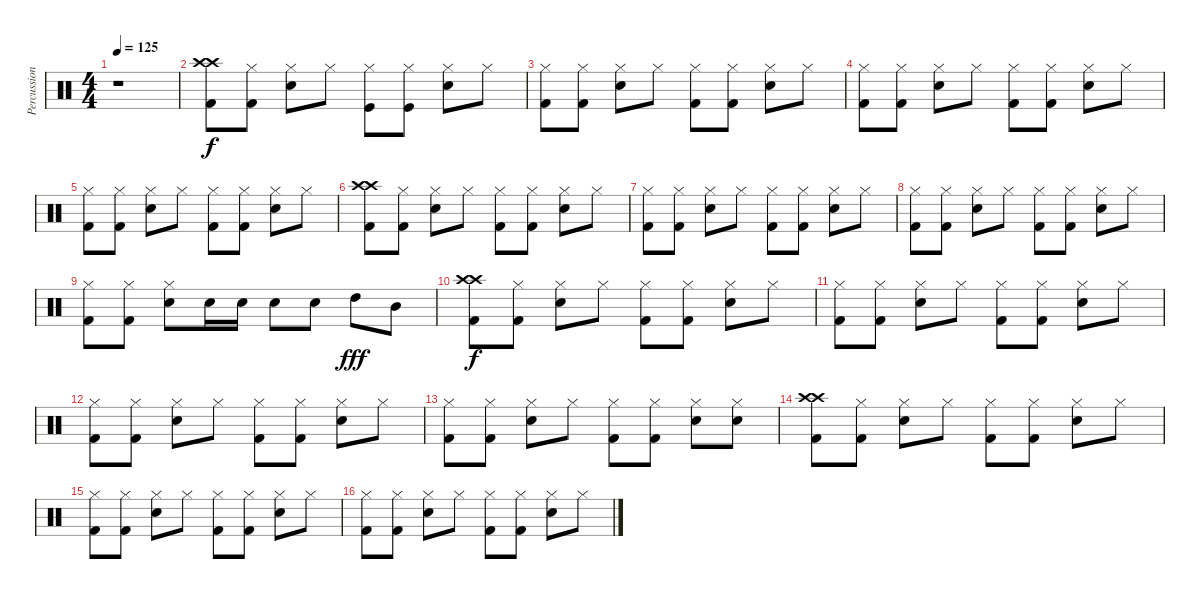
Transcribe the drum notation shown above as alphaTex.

\track ("Percussion" "Percussion") {instrument percussion}
\staff {score}
\articulation defaults
\ts (4 4)
\tempo 125
\clef neutral
\ks c
r.1{dy f} |
("Crash high (hit)" "Crash high (hit)" "Kick (hit) 2").8 ("Hi-Hat (closed)" "Kick (hit) 2").8 ("Hi-Hat (closed)" "Electric Snare (hit)").8 "Hi-Hat (closed)".8 ("Hi-Hat (closed)" "Kick (hit)").8 ("Hi-Hat (closed)" "Kick (hit)").8 ("Hi-Hat (closed)" "Electric Snare (hit)").8 "Hi-Hat (closed)".8 |
("Hi-Hat (closed)" "Kick (hit) 2").8 ("Hi-Hat (closed)" "Kick (hit) 2").8 ("Hi-Hat (closed)" "Electric Snare (hit)").8 "Hi-Hat (closed)".8 ("Hi-Hat (closed)" "Kick (hit) 2").8 ("Hi-Hat (closed)" "Kick (hit) 2").8 ("Hi-Hat (closed)" "Electric Snare (hit)").8 "Hi-Hat (closed)".8 |
("Hi-Hat (closed)" "Kick (hit) 2").8 ("Hi-Hat (closed)" "Kick (hit) 2").8 ("Hi-Hat (closed)" "Electric Snare (hit)").8 "Hi-Hat (closed)".8 ("Hi-Hat (closed)" "Kick (hit) 2").8 ("Hi-Hat (closed)" "Kick (hit) 2").8 ("Hi-Hat (closed)" "Electric Snare (hit)").8 "Hi-Hat (closed)".8 |
("Hi-Hat (closed)" "Kick (hit) 2").8 ("Hi-Hat (closed)" "Kick (hit) 2").8 ("Hi-Hat (closed)" "Electric Snare (hit)").8 "Hi-Hat (closed)".8 ("Hi-Hat (closed)" "Kick (hit) 2").8 ("Hi-Hat (closed)" "Kick (hit) 2").8 ("Hi-Hat (closed)" "Electric Snare (hit)").8 "Hi-Hat (closed)".8 |
("Crash high (hit)" "Kick (hit) 2" "Crash high (hit)").8 ("Hi-Hat (closed)" "Kick (hit) 2").8 ("Hi-Hat (closed)" "Electric Snare (hit)").8 "Hi-Hat (closed)".8 ("Hi-Hat (closed)" "Kick (hit) 2").8 ("Hi-Hat (closed)" "Kick (hit) 2").8 ("Hi-Hat (closed)" "Electric Snare (hit)").8 "Hi-Hat (closed)".8 |
("Hi-Hat (closed)" "Kick (hit) 2").8 ("Hi-Hat (closed)" "Kick (hit) 2").8 ("Hi-Hat (closed)" "Electric Snare (hit)").8 "Hi-Hat (closed)".8 ("Hi-Hat (closed)" "Kick (hit) 2").8 ("Hi-Hat (closed)" "Kick (hit) 2").8 ("Hi-Hat (closed)" "Electric Snare (hit)").8 "Hi-Hat (closed)".8 |
("Hi-Hat (closed)" "Kick (hit) 2").8 ("Hi-Hat (closed)" "Kick (hit) 2").8 ("Hi-Hat (closed)" "Electric Snare (hit)").8 "Hi-Hat (closed)".8 ("Hi-Hat (closed)" "Kick (hit) 2").8 ("Hi-Hat (closed)" "Kick (hit) 2").8 ("Hi-Hat (closed)" "Electric Snare (hit)").8 "Hi-Hat (closed)".8 |
("Hi-Hat (closed)" "Kick (hit) 2").8 ("Hi-Hat (closed)" "Kick (hit) 2").8 ("Hi-Hat (closed)" "Electric Snare (hit)").8 "Electric Snare (hit)".16 "Electric Snare (hit)".16 "Electric Snare (hit)".8 "Electric Snare (hit)".8 "High Tom (hit)".8{dy fff} "Mid Tom (hit)".8 |
("Crash high (hit)" "Kick (hit) 2" "Crash high (hit)").8{dy f} ("Hi-Hat (closed)" "Kick (hit) 2").8 ("Hi-Hat (closed)" "Electric Snare (hit)").8 "Hi-Hat (closed)".8 ("Hi-Hat (closed)" "Kick (hit) 2").8 ("Hi-Hat (closed)" "Kick (hit) 2").8 ("Hi-Hat (closed)" "Electric Snare (hit)").8 "Hi-Hat (closed)".8 |
("Hi-Hat (closed)" "Kick (hit) 2").8 ("Hi-Hat (closed)" "Kick (hit) 2").8 ("Hi-Hat (closed)" "Electric Snare (hit)").8 "Hi-Hat (closed)".8 ("Hi-Hat (closed)" "Kick (hit) 2").8 ("Hi-Hat (closed)" "Kick (hit) 2").8 ("Hi-Hat (closed)" "Electric Snare (hit)").8 "Hi-Hat (closed)".8 |
("Hi-Hat (closed)" "Kick (hit) 2").8 ("Hi-Hat (closed)" "Kick (hit) 2").8 ("Hi-Hat (closed)" "Electric Snare (hit)").8 "Hi-Hat (closed)".8 ("Hi-Hat (closed)" "Kick (hit) 2").8 ("Hi-Hat (closed)" "Kick (hit) 2").8 ("Hi-Hat (closed)" "Electric Snare (hit)").8 "Hi-Hat (closed)".8 |
("Hi-Hat (closed)" "Kick (hit) 2").8 ("Hi-Hat (closed)" "Kick (hit) 2").8 ("Hi-Hat (closed)" "Electric Snare (hit)").8 "Hi-Hat (closed)".8 ("Hi-Hat (closed)" "Kick (hit) 2").8 ("Hi-Hat (closed)" "Kick (hit) 2").8 ("Hi-Hat (closed)" "Electric Snare (hit)").8 ("Hi-Hat (closed)" "Electric Snare (hit)").8 |
("Crash high (hit)" "Kick (hit) 2" "Crash high (hit)").8 ("Hi-Hat (closed)" "Kick (hit) 2").8 ("Hi-Hat (closed)" "Electric Snare (hit)").8 "Hi-Hat (closed)".8 ("Hi-Hat (closed)" "Kick (hit) 2").8 ("Hi-Hat (closed)" "Kick (hit) 2").8 ("Hi-Hat (closed)" "Electric Snare (hit)").8 "Hi-Hat (closed)".8 |
("Hi-Hat (closed)" "Kick (hit) 2").8 ("Hi-Hat (closed)" "Kick (hit) 2").8 ("Hi-Hat (closed)" "Electric Snare (hit)").8 "Hi-Hat (closed)".8 ("Hi-Hat (closed)" "Kick (hit) 2").8 ("Hi-Hat (closed)" "Kick (hit) 2").8 ("Hi-Hat (closed)" "Electric Snare (hit)").8 "Hi-Hat (closed)".8 |
("Hi-Hat (closed)" "Kick (hit) 2").8 ("Hi-Hat (closed)" "Kick (hit) 2").8 ("Hi-Hat (closed)" "Electric Snare (hit)").8 "Hi-Hat (closed)".8 ("Hi-Hat (closed)" "Kick (hit) 2").8 ("Hi-Hat (closed)" "Kick (hit) 2").8 ("Hi-Hat (closed)" "Electric Snare (hit)").8 "Hi-Hat (closed)".8
